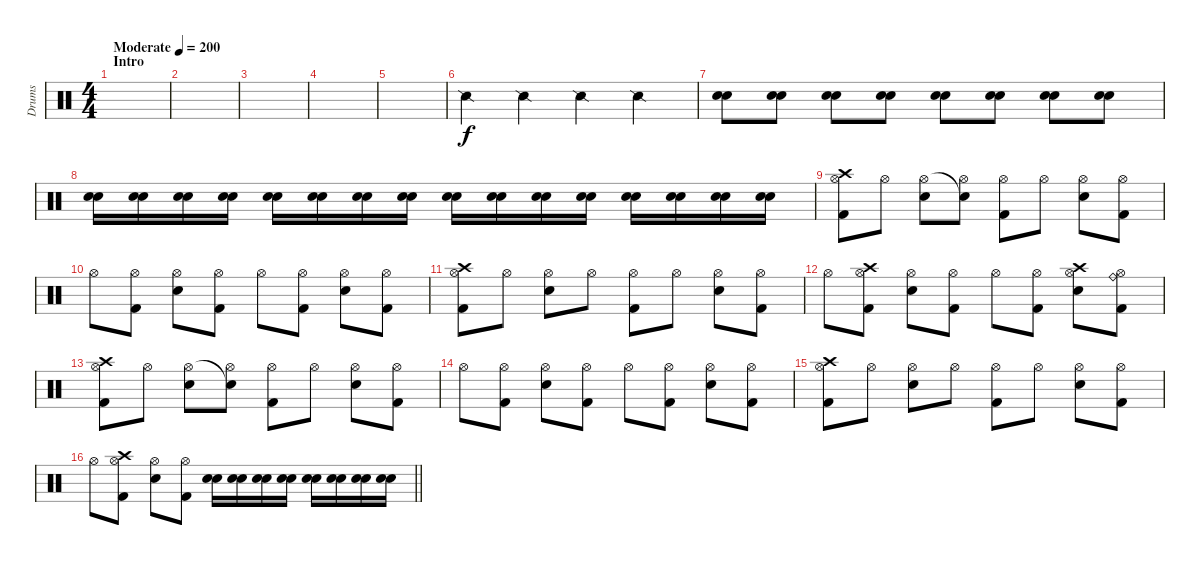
\track ("Drums" "Drums") {instrument percussion}
\staff {score}
\articulation defaults
\ts (4 4)
\section ("" "Intro")
\tempo (200 "Moderate")
\clef neutral
\ks c
|
|
|
|
|
"Snare (side stick) 2".4 "Snare (side stick) 2".4 "Snare (side stick) 2".4 "Snare (side stick) 2".4 |
("Electric Snare (hit)" "Snare (hit) 2").8 ("Electric Snare (hit)" "Snare (hit) 2").8 ("Electric Snare (hit)" "Snare (hit) 2").8 ("Electric Snare (hit)" "Snare (hit) 2").8 ("Electric Snare (hit)" "Snare (hit) 2").8 ("Electric Snare (hit)" "Snare (hit) 2").8 ("Electric Snare (hit)" "Snare (hit) 2").8 ("Electric Snare (hit)" "Snare (hit) 2").8 |
("Electric Snare (hit)" "Snare (hit) 2").16 ("Electric Snare (hit)" "Snare (hit) 2").16 ("Electric Snare (hit)" "Snare (hit) 2").16 ("Electric Snare (hit)" "Snare (hit) 2").16 ("Electric Snare (hit)" "Snare (hit) 2").16 ("Electric Snare (hit)" "Snare (hit) 2").16 ("Electric Snare (hit)" "Snare (hit) 2").16 ("Electric Snare (hit)" "Snare (hit) 2").16 ("Electric Snare (hit)" "Snare (hit) 2").16 ("Electric Snare (hit)" "Snare (hit) 2").16 ("Electric Snare (hit)" "Snare (hit) 2").16 ("Electric Snare (hit)" "Snare (hit) 2").16 ("Electric Snare (hit)" "Snare (hit) 2").16 ("Electric Snare (hit)" "Snare (hit) 2").16 ("Electric Snare (hit)" "Snare (hit) 2").16 ("Electric Snare (hit)" "Snare (hit) 2").16 |
("Crash high (hit)" "Hi-Hat (open)" "Kick (hit) 2").8 "Hi-Hat (open)".8 ("Hi-Hat (open)" "Electric Snare (hit)").8 ("Snare (hit)"{t} "Hi-Hat (open)").8 ("Hi-Hat (open)" "Kick (hit) 2").8 "Hi-Hat (open)".8 ("Hi-Hat (open)" "Electric Snare (hit)").8 ("Hi-Hat (open)" "Kick (hit) 2").8 |
"Hi-Hat (open)".8 ("Hi-Hat (open)" "Kick (hit) 2").8 ("Hi-Hat (open)" "Electric Snare (hit)").8 ("Hi-Hat (open)" "Kick (hit) 2").8 "Hi-Hat (open)".8 ("Hi-Hat (open)" "Kick (hit) 2").8 ("Hi-Hat (open)" "Electric Snare (hit)").8 ("Hi-Hat (open)" "Kick (hit) 2").8 |
("Crash high (hit)" "Hi-Hat (open)" "Kick (hit) 2").8 "Hi-Hat (open)".8 ("Hi-Hat (open)" "Electric Snare (hit)").8 "Hi-Hat (open)".8 ("Hi-Hat (open)" "Kick (hit) 2").8 "Hi-Hat (open)".8 ("Hi-Hat (open)" "Electric Snare (hit)").8 ("Hi-Hat (open)" "Kick (hit) 2").8 |
"Hi-Hat (open)".8 ("Crash high (hit)" "Hi-Hat (open)" "Kick (hit) 2").8 ("Hi-Hat (open)" "Electric Snare (hit)").8 ("Hi-Hat (open)" "Kick (hit) 2").8 "Hi-Hat (open)".8 ("Hi-Hat (open)" "Kick (hit) 2").8 ("Crash high (hit)" "Hi-Hat (open)" "Electric Snare (hit)").8 ("Ride (bell)" "Hi-Hat (open)" "Kick (hit) 2").8 |
("Crash high (hit)" "Hi-Hat (open)" "Kick (hit) 2").8 "Hi-Hat (open)".8 ("Hi-Hat (open)" "Electric Snare (hit)").8 ("Snare (hit)"{t} "Hi-Hat (open)").8 ("Hi-Hat (open)" "Kick (hit) 2").8 "Hi-Hat (open)".8 ("Hi-Hat (open)" "Electric Snare (hit)").8 ("Hi-Hat (open)" "Kick (hit) 2").8 |
"Hi-Hat (open)".8 ("Hi-Hat (open)" "Kick (hit) 2").8 ("Hi-Hat (open)" "Electric Snare (hit)").8 ("Hi-Hat (open)" "Kick (hit) 2").8 "Hi-Hat (open)".8 ("Hi-Hat (open)" "Kick (hit) 2").8 ("Hi-Hat (open)" "Electric Snare (hit)").8 ("Hi-Hat (open)" "Kick (hit) 2").8 |
("Crash high (hit)" "Hi-Hat (open)" "Kick (hit) 2").8 "Hi-Hat (open)".8 ("Hi-Hat (open)" "Electric Snare (hit)").8 "Hi-Hat (open)".8 ("Hi-Hat (open)" "Kick (hit) 2").8 "Hi-Hat (open)".8 ("Hi-Hat (open)" "Electric Snare (hit)").8 ("Hi-Hat (open)" "Kick (hit) 2").8 |
\barLineRight lightlight "Hi-Hat (open)".8
("Crash high (hit)" "Hi-Hat (open)" "Kick (hit) 2").8 ("Hi-Hat (open)" "Electric Snare (hit)").8 ("Hi-Hat (open)" "Kick (hit) 2").8 ("Snare (hit) 2" "Electric Snare (hit)").16 ("Snare (hit) 2" "Electric Snare (hit)").16 ("Snare (hit) 2" "Electric Snare (hit)").16 ("Snare (hit) 2" "Electric Snare (hit)").16 ("Snare (hit) 2" "Electric Snare (hit)").16 ("Snare (hit) 2" "Electric Snare (hit)").16 ("Snare (hit) 2" "Electric Snare (hit)").16 ("Snare (hit) 2" "Electric Snare (hit)").16
